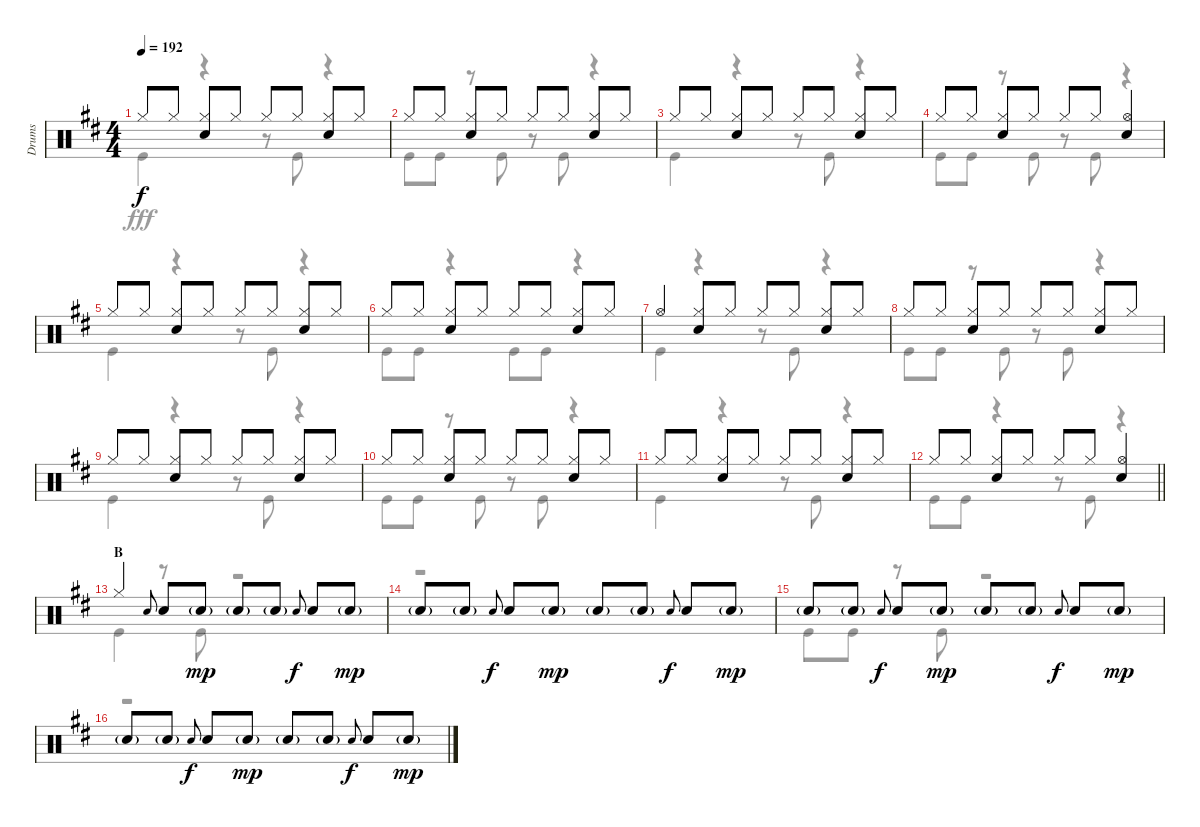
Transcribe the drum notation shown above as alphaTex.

\track ("Drums" "Drums") {instrument percussion}
\staff {score}
\articulation defaults
\voice
\ts (4 4)
\tempo 192
\clef neutral
\ks d "Hi-Hat (closed)".8{dy f} "Hi-Hat (closed)".8
("Hi-Hat (closed)" "Snare (hit) 2").8 "Hi-Hat (closed)".8 "Hi-Hat (closed)".8 "Hi-Hat (closed)".8 ("Hi-Hat (closed)" "Snare (hit) 2").8 "Hi-Hat (closed)".8 |
"Hi-Hat (closed)".8 "Hi-Hat (closed)".8 ("Hi-Hat (closed)" "Snare (hit) 2").8 "Hi-Hat (closed)".8 "Hi-Hat (closed)".8 "Hi-Hat (closed)".8 ("Hi-Hat (closed)" "Snare (hit) 2").8 "Hi-Hat (closed)".8 |
"Hi-Hat (closed)".8 "Hi-Hat (closed)".8 ("Hi-Hat (closed)" "Snare (hit) 2").8 "Hi-Hat (closed)".8 "Hi-Hat (closed)".8 "Hi-Hat (closed)".8 ("Hi-Hat (closed)" "Snare (hit) 2").8 "Hi-Hat (closed)".8 |
"Hi-Hat (closed)".8 "Hi-Hat (closed)".8 ("Hi-Hat (closed)" "Snare (hit) 2").8 "Hi-Hat (closed)".8 "Hi-Hat (closed)".8 "Hi-Hat (closed)".8 ("Hi-Hat (open)" "Snare (hit) 2").4 |
"Hi-Hat (closed)".8 "Hi-Hat (closed)".8 ("Hi-Hat (closed)" "Snare (hit) 2").8 "Hi-Hat (closed)".8 "Hi-Hat (closed)".8 "Hi-Hat (closed)".8 ("Hi-Hat (closed)" "Snare (hit) 2").8 "Hi-Hat (closed)".8 |
"Hi-Hat (closed)".8 "Hi-Hat (closed)".8 ("Hi-Hat (closed)" "Snare (hit) 2").8 "Hi-Hat (closed)".8 "Hi-Hat (closed)".8 "Hi-Hat (closed)".8 ("Hi-Hat (closed)" "Snare (hit) 2").8 "Hi-Hat (closed)".8 |
"Hi-Hat (open)".4 ("Hi-Hat (closed)" "Snare (hit) 2").8 "Hi-Hat (closed)".8 "Hi-Hat (closed)".8 "Hi-Hat (closed)".8 ("Hi-Hat (closed)" "Snare (hit) 2").8 "Hi-Hat (closed)".8 |
"Hi-Hat (closed)".8 "Hi-Hat (closed)".8 ("Hi-Hat (closed)" "Snare (hit) 2").8 "Hi-Hat (closed)".8 "Hi-Hat (closed)".8 "Hi-Hat (closed)".8 ("Hi-Hat (closed)" "Snare (hit) 2").8 "Hi-Hat (closed)".8 |
"Hi-Hat (closed)".8 "Hi-Hat (closed)".8 ("Hi-Hat (closed)" "Snare (hit) 2").8 "Hi-Hat (closed)".8 "Hi-Hat (closed)".8 "Hi-Hat (closed)".8 ("Hi-Hat (closed)" "Snare (hit) 2").8 "Hi-Hat (closed)".8 |
"Hi-Hat (closed)".8 "Hi-Hat (closed)".8 ("Hi-Hat (closed)" "Snare (hit) 2").8 "Hi-Hat (closed)".8 "Hi-Hat (closed)".8 "Hi-Hat (closed)".8 ("Hi-Hat (closed)" "Snare (hit) 2").8 "Hi-Hat (closed)".8 |
"Hi-Hat (closed)".8 "Hi-Hat (closed)".8 ("Hi-Hat (closed)" "Snare (hit) 2").8 "Hi-Hat (closed)".8 "Hi-Hat (closed)".8 "Hi-Hat (closed)".8 ("Hi-Hat (closed)" "Snare (hit) 2").8 "Hi-Hat (closed)".8 |
\barLineRight lightlight "Hi-Hat (closed)".8 "Hi-Hat (closed)".8
("Hi-Hat (closed)" "Snare (hit) 2").8 "Hi-Hat (closed)".8 "Hi-Hat (closed)".8 "Hi-Hat (closed)".8 ("Hi-Hat (open)" "Snare (hit) 2").4 |
\section ("" "B")
"Hi-Hat (closed)".4 "Snare (hit) 2".8{gr onbeat} "Snare (hit) 2".8 "Snare (hit) 2"{g}.8{dy mp} "Snare (hit) 2"{g}.8 "Snare (hit) 2"{g}.8 "Snare (hit) 2".8{gr onbeat dy f} "Snare (hit) 2".8 "Snare (hit) 2"{g}.8{dy mp} |
"Snare (hit) 2"{g}.8 "Snare (hit) 2"{g}.8 "Snare (hit) 2".8{gr onbeat dy f} "Snare (hit) 2".8 "Snare (hit) 2"{g}.8{dy mp} "Snare (hit) 2"{g}.8 "Snare (hit) 2"{g}.8 "Snare (hit) 2".8{gr onbeat dy f} "Snare (hit) 2".8 "Snare (hit) 2"{g}.8{dy mp} |
"Snare (hit) 2"{g}.8 "Snare (hit) 2"{g}.8 "Snare (hit) 2".8{gr onbeat dy f} "Snare (hit) 2".8 "Snare (hit) 2"{g}.8{dy mp} "Snare (hit) 2"{g}.8 "Snare (hit) 2"{g}.8 "Snare (hit) 2".8{gr onbeat dy f} "Snare (hit) 2".8 "Snare (hit) 2"{g}.8{dy mp} |
"Snare (hit) 2"{g}.8 "Snare (hit) 2"{g}.8 "Snare (hit) 2".8{gr onbeat dy f} "Snare (hit) 2".8 "Snare (hit) 2"{g}.8{dy mp} "Snare (hit) 2"{g}.8 "Snare (hit) 2"{g}.8 "Snare (hit) 2".8{gr onbeat dy f} "Snare (hit) 2".8 "Snare (hit) 2"{g}.8{dy mp}
\voice
\clef neutral
\ottava regular
\simile none
\ks d "Kick (hit)".4{dy fff}
r.4 r.8 "Kick (hit)".8 r.4 |
"Kick (hit)".8 "Kick (hit)".8 r.8 "Kick (hit)".8 r.8 "Kick (hit)".8 r.4 |
"Kick (hit)".4 r.4 r.8 "Kick (hit)".8 r.4 |
"Kick (hit)".8 "Kick (hit)".8 r.8 "Kick (hit)".8 r.8 "Kick (hit)".8 r.4 |
"Kick (hit)".4 r.4 r.8 "Kick (hit)".8 r.4 |
"Kick (hit)".8 "Kick (hit)".8 r.4 "Kick (hit)".8 "Kick (hit)".8 r.4 |
"Kick (hit)".4 r.4 r.8 "Kick (hit)".8 r.4 |
"Kick (hit)".8 "Kick (hit)".8 r.8 "Kick (hit)".8 r.8 "Kick (hit)".8 r.4 |
"Kick (hit)".4 r.4 r.8 "Kick (hit)".8 r.4 |
"Kick (hit)".8 "Kick (hit)".8 r.8 "Kick (hit)".8 r.8 "Kick (hit)".8 r.4 |
"Kick (hit)".4 r.4 r.8 "Kick (hit)".8 r.4 |
\barLineRight lightlight "Kick (hit)".8 "Kick (hit)".8
r.4 r.8 "Kick (hit)".8 r.4 |
"Kick (hit)".4 r.8 "Kick (hit)".8 r.2 |
r.1 |
"Kick (hit)".8 "Kick (hit)".8 r.8 "Kick (hit)".8 r.2 |
r.1
